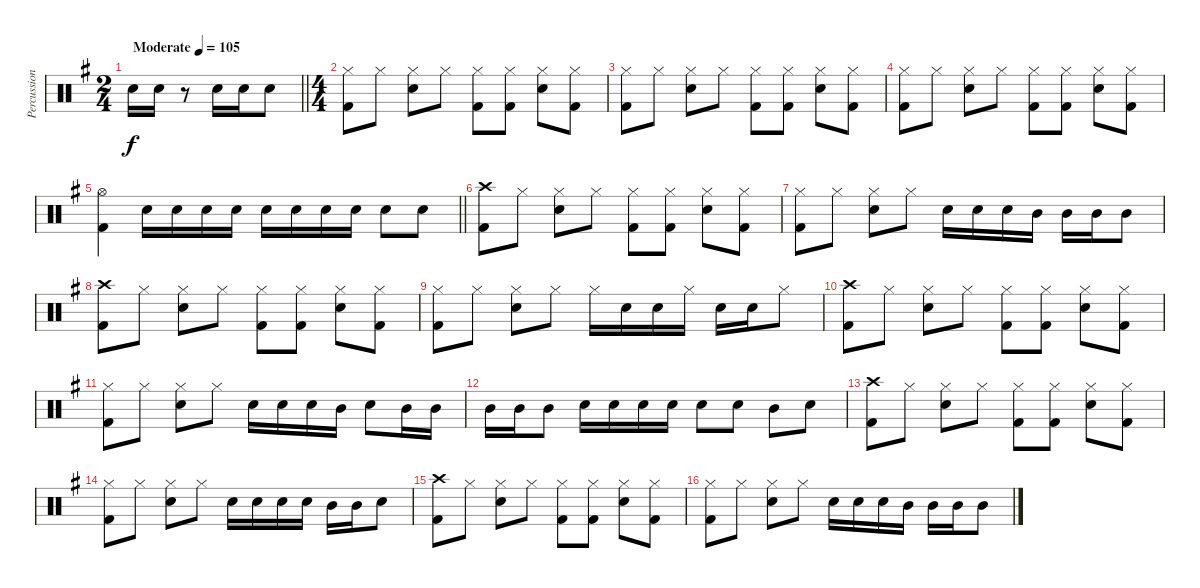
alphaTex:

\track ("Percussion" "Percussion") {instrument percussion}
\staff {score}
\articulation defaults
\ts (2 4)
\tempo (105 "Moderate")
\clef neutral
\barLineRight lightlight
\ks g "Snare (hit) 2".16{dy f} "Snare (hit) 2".16
r.8 "Snare (hit) 2".16 "Snare (hit) 2".16 "Snare (hit) 2".8 |
\ts (4 4)
("Hi-Hat (closed)" "Kick (hit) 2").8 "Hi-Hat (closed)".8 ("Hi-Hat (closed)" "Snare (hit) 2").8 "Hi-Hat (closed)".8 ("Hi-Hat (closed)" "Kick (hit) 2").8 ("Hi-Hat (closed)" "Kick (hit) 2").8 ("Hi-Hat (closed)" "Snare (hit) 2").8 ("Hi-Hat (closed)" "Kick (hit) 2").8 |
("Hi-Hat (closed)" "Kick (hit) 2").8 "Hi-Hat (closed)".8 ("Hi-Hat (closed)" "Snare (hit) 2").8 "Hi-Hat (closed)".8 ("Hi-Hat (closed)" "Kick (hit) 2").8 ("Hi-Hat (closed)" "Kick (hit) 2").8 ("Hi-Hat (closed)" "Snare (hit) 2").8 ("Hi-Hat (closed)" "Kick (hit) 2").8 |
("Hi-Hat (closed)" "Kick (hit) 2").8 "Hi-Hat (closed)".8 ("Hi-Hat (closed)" "Snare (hit) 2").8 "Hi-Hat (closed)".8 ("Hi-Hat (closed)" "Kick (hit) 2").8 ("Hi-Hat (closed)" "Kick (hit) 2").8 ("Hi-Hat (closed)" "Snare (hit) 2").8 ("Hi-Hat (closed)" "Kick (hit) 2").8 |
\barLineRight lightlight
("Hi-Hat (open)" "Kick (hit) 2").4 "Snare (hit) 2".16 "Snare (hit) 2".16 "Snare (hit) 2".16 "Snare (hit) 2".16 "Snare (hit) 2".16 "Snare (hit) 2".16 "Snare (hit) 2".16 "Snare (hit) 2".16 "Snare (hit) 2".8 "Snare (hit) 2".8 |
("Crash high (hit)" "Kick (hit) 2").8 "Hi-Hat (closed)".8 ("Hi-Hat (closed)" "Snare (hit) 2").8 "Hi-Hat (closed)".8 ("Hi-Hat (closed)" "Kick (hit) 2").8 ("Hi-Hat (closed)" "Kick (hit) 2").8 ("Hi-Hat (closed)" "Snare (hit) 2").8 ("Hi-Hat (closed)" "Kick (hit) 2").8 |
("Hi-Hat (closed)" "Kick (hit) 2").8 "Hi-Hat (closed)".8 ("Hi-Hat (closed)" "Snare (hit) 2").8 "Hi-Hat (closed)".8 "Snare (hit) 2".16 "Snare (hit) 2".16 "Snare (hit) 2".16 "Mid Tom (hit)".16 "Mid Tom (hit)".16 "Mid Tom (hit)".16 "Mid Tom (hit)".8 |
("Crash high (hit)" "Kick (hit) 2").8 "Hi-Hat (closed)".8 ("Hi-Hat (closed)" "Snare (hit) 2").8 "Hi-Hat (closed)".8 ("Hi-Hat (closed)" "Kick (hit) 2").8 ("Hi-Hat (closed)" "Kick (hit) 2").8 ("Hi-Hat (closed)" "Snare (hit) 2").8 ("Hi-Hat (closed)" "Kick (hit) 2").8 |
("Hi-Hat (closed)" "Kick (hit) 2").8 "Hi-Hat (closed)".8 ("Hi-Hat (closed)" "Snare (hit) 2").8 "Hi-Hat (closed)".8 "Hi-Hat (closed)".16 "Snare (hit) 2".16 "Snare (hit) 2".16 "Hi-Hat (closed)".16 "Snare (hit) 2".16 "Snare (hit) 2".16 "Hi-Hat (closed)".8 |
("Crash high (hit)" "Kick (hit) 2").8 "Hi-Hat (closed)".8 ("Hi-Hat (closed)" "Snare (hit) 2").8 "Hi-Hat (closed)".8 ("Hi-Hat (closed)" "Kick (hit) 2").8 ("Hi-Hat (closed)" "Kick (hit) 2").8 ("Hi-Hat (closed)" "Snare (hit) 2").8 ("Hi-Hat (closed)" "Kick (hit) 2").8 |
("Hi-Hat (closed)" "Kick (hit) 2").8 "Hi-Hat (closed)".8 ("Hi-Hat (closed)" "Snare (hit) 2").8 "Hi-Hat (closed)".8 "Snare (hit) 2".16 "Snare (hit) 2".16 "Snare (hit) 2".16 "Mid Tom (hit)".16 "Snare (hit) 2".8 "Mid Tom (hit)".16 "Mid Tom (hit)".16 |
"Mid Tom (hit)".16 "Mid Tom (hit)".16 "Mid Tom (hit)".8 "Snare (hit) 2".16 "Snare (hit) 2".16 "Snare (hit) 2".16 "Snare (hit) 2".16 "Snare (hit) 2".8 "Snare (hit) 2".8 "Mid Tom (hit)".8 "Snare (hit) 2".8 |
("Crash high (hit)" "Kick (hit) 2").8 "Hi-Hat (closed)".8 ("Hi-Hat (closed)" "Snare (hit) 2").8 "Hi-Hat (closed)".8 ("Hi-Hat (closed)" "Kick (hit) 2").8 ("Hi-Hat (closed)" "Kick (hit) 2").8 ("Hi-Hat (closed)" "Snare (hit) 2").8 ("Hi-Hat (closed)" "Kick (hit) 2").8 |
("Hi-Hat (closed)" "Kick (hit) 2").8 "Hi-Hat (closed)".8 ("Hi-Hat (closed)" "Snare (hit) 2").8 "Hi-Hat (closed)".8 "Snare (hit) 2".16 "Snare (hit) 2".16 "Snare (hit) 2".16 "Snare (hit) 2".16 "Mid Tom (hit)".16 "Mid Tom (hit)".16 "Snare (hit) 2".8 |
("Crash high (hit)" "Kick (hit) 2").8 "Hi-Hat (closed)".8 ("Hi-Hat (closed)" "Snare (hit) 2").8 "Hi-Hat (closed)".8 ("Hi-Hat (closed)" "Kick (hit) 2").8 ("Hi-Hat (closed)" "Kick (hit) 2").8 ("Hi-Hat (closed)" "Snare (hit) 2").8 ("Hi-Hat (closed)" "Kick (hit) 2").8 |
("Hi-Hat (closed)" "Kick (hit) 2").8 "Hi-Hat (closed)".8 ("Hi-Hat (closed)" "Snare (hit) 2").8 "Hi-Hat (closed)".8 "Snare (hit) 2".16 "Snare (hit) 2".16 "Snare (hit) 2".16 "Mid Tom (hit)".16 "Mid Tom (hit)".16 "Mid Tom (hit)".16 "Mid Tom (hit)".8
